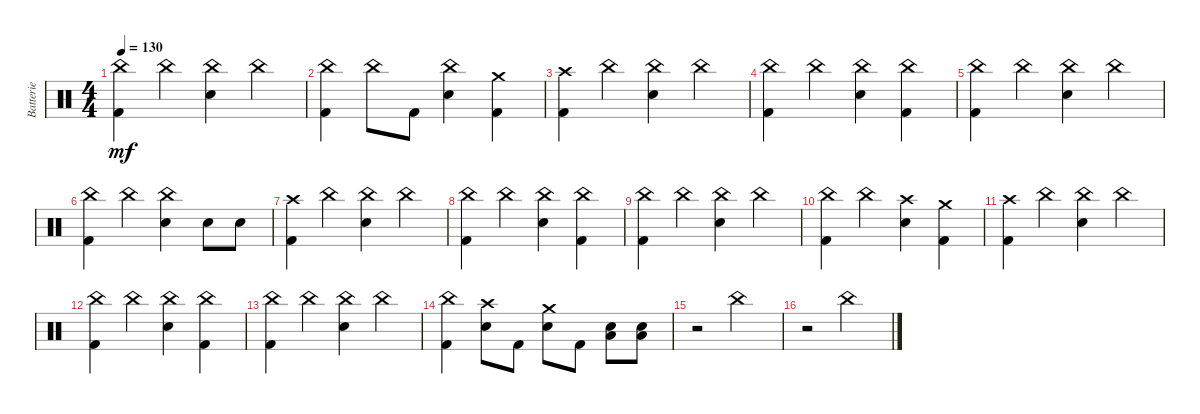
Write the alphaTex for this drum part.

\track ("Batterie" "Batterie") {instrument percussion}
\staff {score}
\articulation defaults
\ts (4 4)
\tempo 130
\clef neutral
\ks c
("China (hit)" "Kick (hit) 2").4{dy mf} "China (hit)".4 ("China (hit)" "Electric Snare (hit)").4 "China (hit)".4 |
("China (hit)" "Kick (hit) 2").4 "China (hit)".8 "Kick (hit) 2".8 ("China (hit)" "Electric Snare (hit)").4 ("Crash medium (hit)" "Kick (hit) 2").4 |
("Crash high (hit)" "Kick (hit) 2").4 "China (hit)".4 ("China (hit)" "Electric Snare (hit)").4 "China (hit)".4 |
("China (hit)" "Kick (hit) 2").4 "China (hit)".4 ("China (hit)" "Electric Snare (hit)").4 ("China (hit)" "Kick (hit) 2").4 |
("China (hit)" "Kick (hit) 2").4 "China (hit)".4 ("China (hit)" "Electric Snare (hit)").4 "China (hit)".4 |
("China (hit)" "Kick (hit) 2").4 "China (hit)".4 ("China (hit)" "Electric Snare (hit)").4 "Electric Snare (hit)".8 "Electric Snare (hit)".8 |
("Crash high (hit)" "Kick (hit) 2").4 "China (hit)".4 ("China (hit)" "Electric Snare (hit)").4 "China (hit)".4 |
("China (hit)" "Kick (hit) 2").4 "China (hit)".4 ("China (hit)" "Electric Snare (hit)").4 ("China (hit)" "Kick (hit) 2").4 |
("China (hit)" "Kick (hit) 2").4 "China (hit)".4 ("China (hit)" "Electric Snare (hit)").4 "China (hit)".4 |
("China (hit)" "Kick (hit) 2").4 "China (hit)".4 ("Crash high (hit)" "Electric Snare (hit)").4 ("Crash medium (hit)" "Kick (hit) 2").4 |
("Crash high (hit)" "Kick (hit) 2").4 "China (hit)".4 ("China (hit)" "Electric Snare (hit)").4 "China (hit)".4 |
("China (hit)" "Kick (hit) 2").4 "China (hit)".4 ("China (hit)" "Electric Snare (hit)").4 ("China (hit)" "Kick (hit) 2").4 |
("China (hit)" "Kick (hit) 2").4 "China (hit)".4 ("China (hit)" "Electric Snare (hit)").4 "China (hit)".4 |
("China (hit)" "Kick (hit) 2").4 ("Crash high (hit)" "Electric Snare (hit)").8 "Kick (hit) 2".8 ("Crash medium (hit)" "Electric Snare (hit)").8 "Kick (hit) 2".8 ("Electric Snare (hit)" "Low Floor Tom (hit)").8 ("Electric Snare (hit)" "Low Floor Tom (hit)").8 |
r.2 "China (hit)".2 |
r.2 "China (hit)".2
